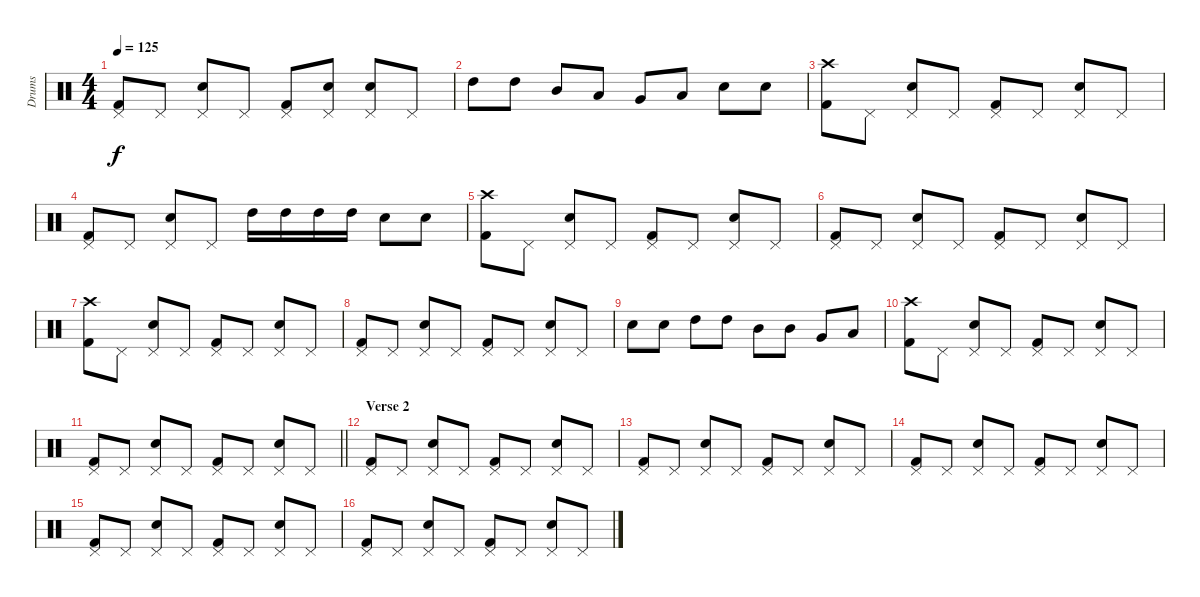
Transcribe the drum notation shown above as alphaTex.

\track ("Drums" "Drums") {instrument percussion}
\staff {score}
\articulation defaults
\ts (4 4)
\tempo 125
\clef neutral
\ks c
("Pedal Hi-Hat (hit)" "Kick (hit) 2").8{dy f} "Pedal Hi-Hat (hit)".8 ("Pedal Hi-Hat (hit)" "Snare (hit) 2").8 "Pedal Hi-Hat (hit)".8 ("Pedal Hi-Hat (hit)" "Kick (hit) 2").8 ("Pedal Hi-Hat (hit)" "Snare (hit) 2").8 ("Pedal Hi-Hat (hit)" "Snare (hit) 2").8 "Pedal Hi-Hat (hit)".8 |
"High Tom (hit)".8 "High Tom (hit)".8 "Mid Tom (hit)".8 "Low Tom (hit)".8 "Very Low Tom (hit)".8 "Low Floor Tom (hit)".8 "Snare (hit) 2".8 "Snare (hit) 2".8 |
("Crash high (hit)" "Kick (hit) 2").8 "Pedal Hi-Hat (hit)".8 ("Pedal Hi-Hat (hit)" "Snare (hit) 2").8 "Pedal Hi-Hat (hit)".8 ("Pedal Hi-Hat (hit)" "Kick (hit) 2").8 "Pedal Hi-Hat (hit)".8 ("Pedal Hi-Hat (hit)" "Snare (hit) 2").8 "Pedal Hi-Hat (hit)".8 |
("Pedal Hi-Hat (hit)" "Kick (hit) 2").8 "Pedal Hi-Hat (hit)".8 ("Pedal Hi-Hat (hit)" "Snare (hit) 2").8 "Pedal Hi-Hat (hit)".8 "High Tom (hit)".16 "High Tom (hit)".16 "High Tom (hit)".16 "High Tom (hit)".16 "Snare (hit) 2".8 "Snare (hit) 2".8 |
("Crash high (hit)" "Kick (hit) 2").8 "Pedal Hi-Hat (hit)".8 ("Pedal Hi-Hat (hit)" "Snare (hit) 2").8 "Pedal Hi-Hat (hit)".8 ("Pedal Hi-Hat (hit)" "Kick (hit) 2").8 "Pedal Hi-Hat (hit)".8 ("Pedal Hi-Hat (hit)" "Snare (hit) 2").8 "Pedal Hi-Hat (hit)".8 |
("Pedal Hi-Hat (hit)" "Kick (hit) 2").8 "Pedal Hi-Hat (hit)".8 ("Pedal Hi-Hat (hit)" "Snare (hit) 2").8 "Pedal Hi-Hat (hit)".8 ("Pedal Hi-Hat (hit)" "Kick (hit) 2").8 "Pedal Hi-Hat (hit)".8 ("Pedal Hi-Hat (hit)" "Snare (hit) 2").8 "Pedal Hi-Hat (hit)".8 |
("Crash high (hit)" "Kick (hit) 2").8 "Pedal Hi-Hat (hit)".8 ("Pedal Hi-Hat (hit)" "Snare (hit) 2").8 "Pedal Hi-Hat (hit)".8 ("Pedal Hi-Hat (hit)" "Kick (hit) 2").8 "Pedal Hi-Hat (hit)".8 ("Pedal Hi-Hat (hit)" "Snare (hit) 2").8 "Pedal Hi-Hat (hit)".8 |
("Pedal Hi-Hat (hit)" "Kick (hit) 2").8 "Pedal Hi-Hat (hit)".8 ("Pedal Hi-Hat (hit)" "Snare (hit) 2").8 "Pedal Hi-Hat (hit)".8 ("Pedal Hi-Hat (hit)" "Kick (hit) 2").8 "Pedal Hi-Hat (hit)".8 ("Pedal Hi-Hat (hit)" "Snare (hit) 2").8 "Pedal Hi-Hat (hit)".8 |
"Snare (hit) 2".8 "Snare (hit) 2".8 "High Tom (hit)".8 "High Tom (hit)".8 "Mid Tom (hit)".8 "Mid Tom (hit)".8 "Very Low Tom (hit)".8 "Low Floor Tom (hit)".8 |
("Crash high (hit)" "Kick (hit) 2").8 "Pedal Hi-Hat (hit)".8 ("Pedal Hi-Hat (hit)" "Snare (hit) 2").8 "Pedal Hi-Hat (hit)".8 ("Pedal Hi-Hat (hit)" "Kick (hit) 2").8 "Pedal Hi-Hat (hit)".8 ("Pedal Hi-Hat (hit)" "Snare (hit) 2").8 "Pedal Hi-Hat (hit)".8 |
\barLineRight lightlight
("Pedal Hi-Hat (hit)" "Kick (hit) 2").8 "Pedal Hi-Hat (hit)".8 ("Pedal Hi-Hat (hit)" "Snare (hit) 2").8 "Pedal Hi-Hat (hit)".8 ("Pedal Hi-Hat (hit)" "Kick (hit) 2").8 "Pedal Hi-Hat (hit)".8 ("Pedal Hi-Hat (hit)" "Snare (hit) 2").8 "Pedal Hi-Hat (hit)".8 |
\section ("" "Verse 2")
("Pedal Hi-Hat (hit)" "Kick (hit) 2").8 "Pedal Hi-Hat (hit)".8 ("Pedal Hi-Hat (hit)" "Snare (hit) 2").8 "Pedal Hi-Hat (hit)".8 ("Pedal Hi-Hat (hit)" "Kick (hit) 2").8 "Pedal Hi-Hat (hit)".8 ("Pedal Hi-Hat (hit)" "Snare (hit) 2").8 "Pedal Hi-Hat (hit)".8 |
("Pedal Hi-Hat (hit)" "Kick (hit) 2").8 "Pedal Hi-Hat (hit)".8 ("Pedal Hi-Hat (hit)" "Snare (hit) 2").8 "Pedal Hi-Hat (hit)".8 ("Pedal Hi-Hat (hit)" "Kick (hit) 2").8 "Pedal Hi-Hat (hit)".8 ("Pedal Hi-Hat (hit)" "Snare (hit) 2").8 "Pedal Hi-Hat (hit)".8 |
("Pedal Hi-Hat (hit)" "Kick (hit) 2").8 "Pedal Hi-Hat (hit)".8 ("Pedal Hi-Hat (hit)" "Snare (hit) 2").8 "Pedal Hi-Hat (hit)".8 ("Pedal Hi-Hat (hit)" "Kick (hit) 2").8 "Pedal Hi-Hat (hit)".8 ("Pedal Hi-Hat (hit)" "Snare (hit) 2").8 "Pedal Hi-Hat (hit)".8 |
("Pedal Hi-Hat (hit)" "Kick (hit) 2").8 "Pedal Hi-Hat (hit)".8 ("Pedal Hi-Hat (hit)" "Snare (hit) 2").8 "Pedal Hi-Hat (hit)".8 ("Pedal Hi-Hat (hit)" "Kick (hit) 2").8 "Pedal Hi-Hat (hit)".8 ("Pedal Hi-Hat (hit)" "Snare (hit) 2").8 "Pedal Hi-Hat (hit)".8 |
("Pedal Hi-Hat (hit)" "Kick (hit) 2").8 "Pedal Hi-Hat (hit)".8 ("Pedal Hi-Hat (hit)" "Snare (hit) 2").8 "Pedal Hi-Hat (hit)".8 ("Pedal Hi-Hat (hit)" "Kick (hit) 2").8 "Pedal Hi-Hat (hit)".8 ("Pedal Hi-Hat (hit)" "Snare (hit) 2").8 "Pedal Hi-Hat (hit)".8
